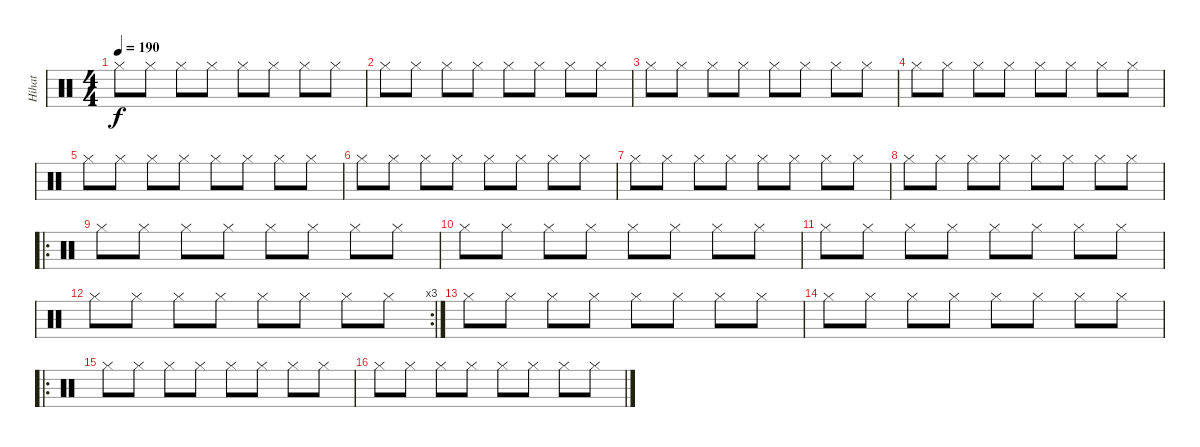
\track ("Hihat" "Hihat") {instrument percussion}
\staff {score}
\articulation defaults
\ts (4 4)
\tempo 190
\clef neutral
\ks c "Hi-Hat (closed)".8{dy f} "Hi-Hat (closed)".8 "Hi-Hat (closed)".8 "Hi-Hat (closed)".8 "Hi-Hat (closed)".8 "Hi-Hat (closed)".8 "Hi-Hat (closed)".8 "Hi-Hat (closed)".8
|
"Hi-Hat (closed)".8 "Hi-Hat (closed)".8 "Hi-Hat (closed)".8 "Hi-Hat (closed)".8 "Hi-Hat (closed)".8 "Hi-Hat (closed)".8 "Hi-Hat (closed)".8 "Hi-Hat (closed)".8 |
"Hi-Hat (closed)".8 "Hi-Hat (closed)".8 "Hi-Hat (closed)".8 "Hi-Hat (closed)".8 "Hi-Hat (closed)".8 "Hi-Hat (closed)".8 "Hi-Hat (closed)".8 "Hi-Hat (closed)".8 |
"Hi-Hat (closed)".8 "Hi-Hat (closed)".8 "Hi-Hat (closed)".8 "Hi-Hat (closed)".8 "Hi-Hat (closed)".8 "Hi-Hat (closed)".8 "Hi-Hat (closed)".8 "Hi-Hat (closed)".8 |
"Hi-Hat (closed)".8 "Hi-Hat (closed)".8 "Hi-Hat (closed)".8 "Hi-Hat (closed)".8 "Hi-Hat (closed)".8 "Hi-Hat (closed)".8 "Hi-Hat (closed)".8 "Hi-Hat (closed)".8 |
"Hi-Hat (closed)".8 "Hi-Hat (closed)".8 "Hi-Hat (closed)".8 "Hi-Hat (closed)".8 "Hi-Hat (closed)".8 "Hi-Hat (closed)".8 "Hi-Hat (closed)".8 "Hi-Hat (closed)".8 |
"Hi-Hat (closed)".8 "Hi-Hat (closed)".8 "Hi-Hat (closed)".8 "Hi-Hat (closed)".8 "Hi-Hat (closed)".8 "Hi-Hat (closed)".8 "Hi-Hat (closed)".8 "Hi-Hat (closed)".8 |
"Hi-Hat (closed)".8 "Hi-Hat (closed)".8 "Hi-Hat (closed)".8 "Hi-Hat (closed)".8 "Hi-Hat (closed)".8 "Hi-Hat (closed)".8 "Hi-Hat (closed)".8 "Hi-Hat (closed)".8 |
\ro "Hi-Hat (closed)".8 "Hi-Hat (closed)".8 "Hi-Hat (closed)".8 "Hi-Hat (closed)".8 "Hi-Hat (closed)".8 "Hi-Hat (closed)".8 "Hi-Hat (closed)".8 "Hi-Hat (closed)".8
|
"Hi-Hat (closed)".8 "Hi-Hat (closed)".8 "Hi-Hat (closed)".8 "Hi-Hat (closed)".8 "Hi-Hat (closed)".8 "Hi-Hat (closed)".8 "Hi-Hat (closed)".8 "Hi-Hat (closed)".8 |
"Hi-Hat (closed)".8 "Hi-Hat (closed)".8 "Hi-Hat (closed)".8 "Hi-Hat (closed)".8 "Hi-Hat (closed)".8 "Hi-Hat (closed)".8 "Hi-Hat (closed)".8 "Hi-Hat (closed)".8 |
\rc 3 "Hi-Hat (closed)".8 "Hi-Hat (closed)".8 "Hi-Hat (closed)".8 "Hi-Hat (closed)".8 "Hi-Hat (closed)".8 "Hi-Hat (closed)".8 "Hi-Hat (closed)".8 "Hi-Hat (closed)".8
|
"Hi-Hat (closed)".8 "Hi-Hat (closed)".8 "Hi-Hat (closed)".8 "Hi-Hat (closed)".8 "Hi-Hat (closed)".8 "Hi-Hat (closed)".8 "Hi-Hat (closed)".8 "Hi-Hat (closed)".8 |
"Hi-Hat (closed)".8 "Hi-Hat (closed)".8 "Hi-Hat (closed)".8 "Hi-Hat (closed)".8 "Hi-Hat (closed)".8 "Hi-Hat (closed)".8 "Hi-Hat (closed)".8 "Hi-Hat (closed)".8 |
\ro "Hi-Hat (closed)".8 "Hi-Hat (closed)".8 "Hi-Hat (closed)".8 "Hi-Hat (closed)".8 "Hi-Hat (closed)".8 "Hi-Hat (closed)".8 "Hi-Hat (closed)".8 "Hi-Hat (closed)".8
|
"Hi-Hat (closed)".8 "Hi-Hat (closed)".8 "Hi-Hat (closed)".8 "Hi-Hat (closed)".8 "Hi-Hat (closed)".8 "Hi-Hat (closed)".8 "Hi-Hat (closed)".8 "Hi-Hat (closed)".8
